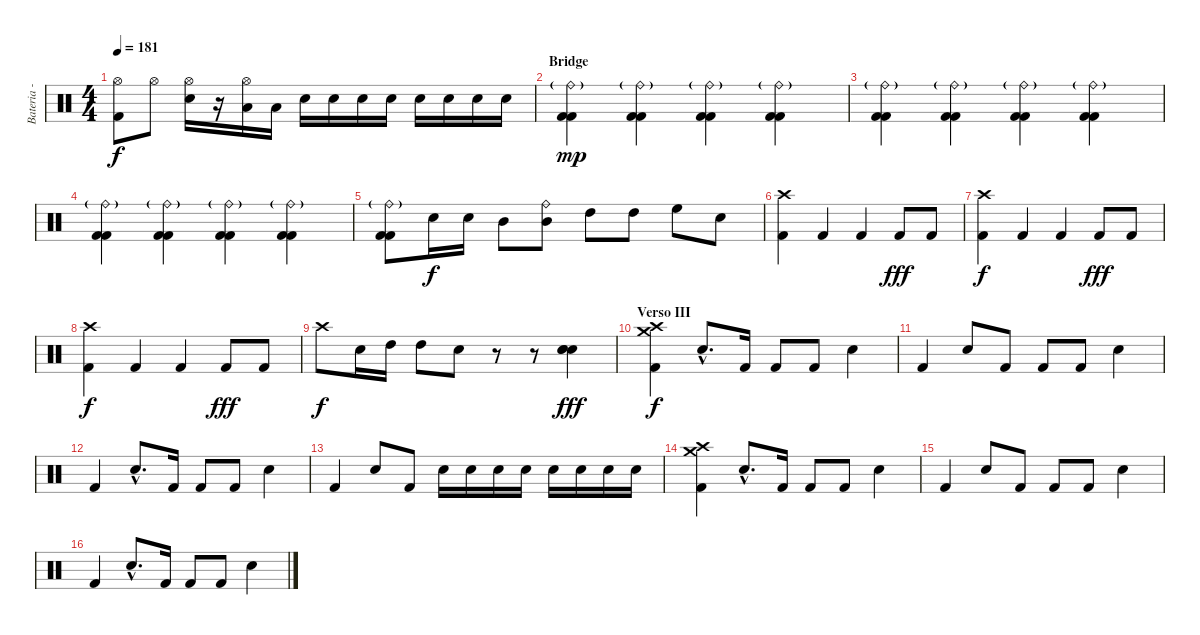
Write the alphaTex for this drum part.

\track ("Bateria - Larzon" "Bateria - ") {instrument percussion}
\staff {score}
\articulation defaults
\ts (4 4)
\tempo 181
\clef neutral
\ks c
("Kick (hit) 2" "Hi-Hat (open)").8{dy f} "Hi-Hat (open)".8 ("Electric Snare (hit)" "Hi-Hat (open)").16 r.16 ("Low Floor Tom (hit)" "Hi-Hat (open)").16 "Low Floor Tom (hit)".16 "Electric Snare (hit)".16 "Electric Snare (hit)".16 "Electric Snare (hit)".16 "Electric Snare (hit)".16 "Electric Snare (hit)".16 "Electric Snare (hit)".16 "Electric Snare (hit)".16 "Electric Snare (hit)".16 |
\section ("" "Bridge")
("Kick (hit) 2" "Kick (hit) 2" "Ride (bell)"{g}).4{dy mp} ("Kick (hit) 2" "Kick (hit) 2" "Ride (bell)"{g}).4 ("Kick (hit) 2" "Kick (hit) 2" "Ride (bell)"{g}).4 ("Kick (hit) 2" "Kick (hit) 2" "Ride (bell)"{g}).4 |
("Kick (hit) 2" "Kick (hit) 2" "Ride (bell)"{g}).4 ("Kick (hit) 2" "Kick (hit) 2" "Ride (bell)"{g}).4 ("Kick (hit) 2" "Kick (hit) 2" "Ride (bell)"{g}).4 ("Kick (hit) 2" "Kick (hit) 2" "Ride (bell)"{g}).4 |
("Kick (hit) 2" "Kick (hit) 2" "Ride (bell)"{g}).4 ("Kick (hit) 2" "Kick (hit) 2" "Ride (bell)"{g}).4 ("Kick (hit) 2" "Kick (hit) 2" "Ride (bell)"{g}).4 ("Kick (hit) 2" "Kick (hit) 2" "Ride (bell)"{g}).4 |
("Kick (hit) 2" "Kick (hit) 2" "Ride (bell)"{g}).8 "Electric Snare (hit)".16{dy f} "Electric Snare (hit)".16 "Mid Tom (hit)".8 ("Mid Tom (hit)" "Ride (bell)").8 "High Tom (hit)".8 "High Tom (hit)".8 "High Floor Tom (hit)".8 "Electric Snare (hit)".8 |
("Kick (hit) 2" "Crash high (hit)").4 "Kick (hit) 2".4 "Kick (hit) 2".4 "Kick (hit) 2".8{dy fff} "Kick (hit) 2".8 |
("Kick (hit) 2" "Crash high (hit)").4{dy f} "Kick (hit) 2".4 "Kick (hit) 2".4 "Kick (hit) 2".8{dy fff} "Kick (hit) 2".8 |
("Kick (hit) 2" "Crash high (hit)").4{dy f} "Kick (hit) 2".4 "Kick (hit) 2".4 "Kick (hit) 2".8{dy fff} "Kick (hit) 2".8 |
"Crash high (hit)".8{dy f} "Electric Snare (hit)".16 "High Tom (hit)".16 "High Tom (hit)".8 "Electric Snare (hit)".8 r.8 r.8 ("Electric Snare (hit)" "Electric Snare (hit)" "Electric Snare (hit)").4{dy fff volume 16} |
\section ("" "Verso III")
("Kick (hit) 2" "Crash high (hit)" "Crash medium (hit)").4{dy f volume 9} "Electric Snare (hit)"{hac}.8{d} "Kick (hit) 2".16 "Kick (hit) 2".8 "Kick (hit) 2".8 "Electric Snare (hit)".4 |
"Kick (hit) 2".4 "Electric Snare (hit)".8 "Kick (hit) 2".8 "Kick (hit) 2".8 "Kick (hit) 2".8 "Electric Snare (hit)".4 |
"Kick (hit) 2".4 "Electric Snare (hit)"{hac}.8{d} "Kick (hit) 2".16 "Kick (hit) 2".8 "Kick (hit) 2".8 "Electric Snare (hit)".4 |
"Kick (hit) 2".4 "Electric Snare (hit)".8 "Kick (hit) 2".8 "Electric Snare (hit)".16 "Electric Snare (hit)".16 "Electric Snare (hit)".16 "Electric Snare (hit)".16 "Electric Snare (hit)".16 "Electric Snare (hit)".16 "Electric Snare (hit)".16 "Electric Snare (hit)".16 |
("Kick (hit) 2" "Crash high (hit)" "Crash medium (hit)").4 "Electric Snare (hit)"{hac}.8{d} "Kick (hit) 2".16 "Kick (hit) 2".8 "Kick (hit) 2".8 "Electric Snare (hit)".4 |
"Kick (hit) 2".4 "Electric Snare (hit)".8 "Kick (hit) 2".8 "Kick (hit) 2".8 "Kick (hit) 2".8 "Electric Snare (hit)".4 |
"Kick (hit) 2".4 "Electric Snare (hit)"{hac}.8{d} "Kick (hit) 2".16 "Kick (hit) 2".8 "Kick (hit) 2".8 "Electric Snare (hit)".4
